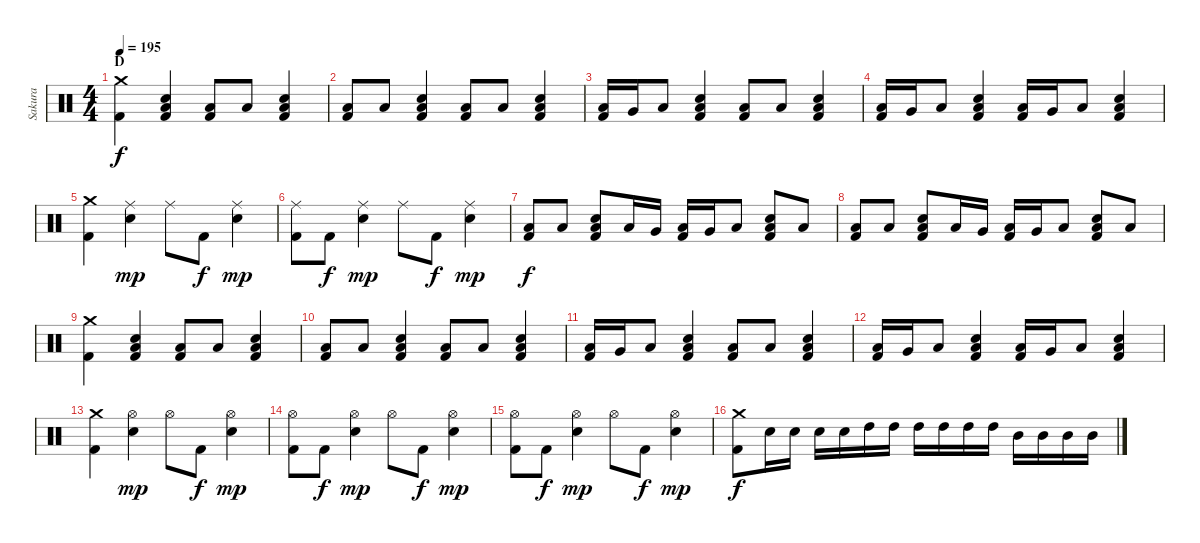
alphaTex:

\track ("Sakura" "Sakura") {instrument percussion}
\staff {score}
\articulation defaults
\ts (4 4)
\section ("" "D")
\tempo 195
\clef neutral
\ks c
("Crash medium (hit)" "Kick (hit) 2").4{dy f} ("Snare (hit) 2" "Low Floor Tom (hit)" "Kick (hit) 2").4 ("Low Floor Tom (hit)" "Kick (hit) 2").8 "Low Floor Tom (hit)".8 ("Snare (hit) 2" "Low Floor Tom (hit)" "Kick (hit) 2").4 |
("Low Floor Tom (hit)" "Kick (hit) 2").8 "Low Floor Tom (hit)".8 ("Snare (hit) 2" "Low Floor Tom (hit)" "Kick (hit) 2").4 ("Low Floor Tom (hit)" "Kick (hit) 2").8 "Low Floor Tom (hit)".8 ("Snare (hit) 2" "Low Floor Tom (hit)" "Kick (hit) 2").4 |
("Low Floor Tom (hit)" "Kick (hit) 2").16 "Very Low Tom (hit)".16 "Low Floor Tom (hit)".8 ("Snare (hit) 2" "Low Floor Tom (hit)" "Kick (hit) 2").4 ("Low Floor Tom (hit)" "Kick (hit) 2").8 "Low Floor Tom (hit)".8 ("Snare (hit) 2" "Low Floor Tom (hit)" "Kick (hit) 2").4 |
("Low Floor Tom (hit)" "Kick (hit) 2").16 "Very Low Tom (hit)".16 "Low Floor Tom (hit)".8 ("Snare (hit) 2" "Low Floor Tom (hit)" "Kick (hit) 2").4 ("Low Floor Tom (hit)" "Kick (hit) 2").16 "Very Low Tom (hit)".16 "Low Floor Tom (hit)".8 ("Snare (hit) 2" "Low Floor Tom (hit)" "Kick (hit) 2").4 |
("Crash medium (hit)" "Kick (hit) 2").4 ("Ride (middle)" "Snare (hit) 2").4{dy mp} "Ride (middle)".8 "Kick (hit) 2".8{dy f} ("Ride (middle)" "Snare (hit) 2").4{dy mp} |
("Ride (middle)" "Kick (hit) 2").8 "Kick (hit) 2".8{dy f} ("Ride (middle)" "Snare (hit) 2").4{dy mp} "Ride (middle)".8 "Kick (hit) 2".8{dy f} ("Ride (middle)" "Snare (hit) 2").4{dy mp} |
("Low Floor Tom (hit)" "Kick (hit) 2").8{dy f} "Low Floor Tom (hit)".8 ("Snare (hit) 2" "Low Floor Tom (hit)" "Kick (hit) 2").8 "Low Floor Tom (hit)".16 "Very Low Tom (hit)".16 ("Low Floor Tom (hit)" "Kick (hit) 2").16 "Very Low Tom (hit)".16 "Low Floor Tom (hit)".8 ("Snare (hit) 2" "Low Floor Tom (hit)" "Kick (hit) 2").8 "Low Floor Tom (hit)".8 |
("Low Floor Tom (hit)" "Kick (hit) 2").8 "Low Floor Tom (hit)".8 ("Snare (hit) 2" "Low Floor Tom (hit)" "Kick (hit) 2").8 "Low Floor Tom (hit)".16 "Very Low Tom (hit)".16 ("Low Floor Tom (hit)" "Kick (hit) 2").16 "Very Low Tom (hit)".16 "Low Floor Tom (hit)".8 ("Snare (hit) 2" "Low Floor Tom (hit)" "Kick (hit) 2").8 "Low Floor Tom (hit)".8 |
("Crash medium (hit)" "Kick (hit) 2").4 ("Snare (hit) 2" "Low Floor Tom (hit)" "Kick (hit) 2").4 ("Low Floor Tom (hit)" "Kick (hit) 2").8 "Low Floor Tom (hit)".8 ("Snare (hit) 2" "Low Floor Tom (hit)" "Kick (hit) 2").4 |
("Low Floor Tom (hit)" "Kick (hit) 2").8 "Low Floor Tom (hit)".8 ("Snare (hit) 2" "Low Floor Tom (hit)" "Kick (hit) 2").4 ("Low Floor Tom (hit)" "Kick (hit) 2").8 "Low Floor Tom (hit)".8 ("Snare (hit) 2" "Low Floor Tom (hit)" "Kick (hit) 2").4 |
("Low Floor Tom (hit)" "Kick (hit) 2").16 "Very Low Tom (hit)".16 "Low Floor Tom (hit)".8 ("Snare (hit) 2" "Low Floor Tom (hit)" "Kick (hit) 2").4 ("Low Floor Tom (hit)" "Kick (hit) 2").8 "Low Floor Tom (hit)".8 ("Snare (hit) 2" "Low Floor Tom (hit)" "Kick (hit) 2").4 |
("Low Floor Tom (hit)" "Kick (hit) 2").16 "Very Low Tom (hit)".16 "Low Floor Tom (hit)".8 ("Snare (hit) 2" "Low Floor Tom (hit)" "Kick (hit) 2").4 ("Low Floor Tom (hit)" "Kick (hit) 2").16 "Very Low Tom (hit)".16 "Low Floor Tom (hit)".8 ("Snare (hit) 2" "Low Floor Tom (hit)" "Kick (hit) 2").4 |
("Crash medium (hit)" "Kick (hit) 2").4 ("Hi-Hat (open)" "Snare (hit) 2").4{dy mp} "Hi-Hat (open)".8 "Kick (hit) 2".8{dy f} ("Hi-Hat (open)" "Snare (hit) 2").4{dy mp} |
("Hi-Hat (open)" "Kick (hit) 2").8 "Kick (hit) 2".8{dy f} ("Hi-Hat (open)" "Snare (hit) 2").4{dy mp} "Hi-Hat (open)".8 "Kick (hit) 2".8{dy f} ("Hi-Hat (open)" "Snare (hit) 2").4{dy mp} |
("Hi-Hat (open)" "Kick (hit) 2").8 "Kick (hit) 2".8{dy f} ("Hi-Hat (open)" "Snare (hit) 2").4{dy mp} "Hi-Hat (open)".8 "Kick (hit) 2".8{dy f} ("Hi-Hat (open)" "Snare (hit) 2").4{dy mp} |
("Crash medium (hit)" "Kick (hit) 2").8{dy f} "Snare (hit) 2".16 "Snare (hit) 2".16 "Snare (hit) 2".16 "Snare (hit) 2".16 "High Tom (hit)".16 "High Tom (hit)".16 "High Tom (hit)".16 "High Tom (hit)".16 "High Tom (hit)".16 "High Tom (hit)".16 "Mid Tom (hit)".16 "Mid Tom (hit)".16 "Mid Tom (hit)".16 "Mid Tom (hit)".16
